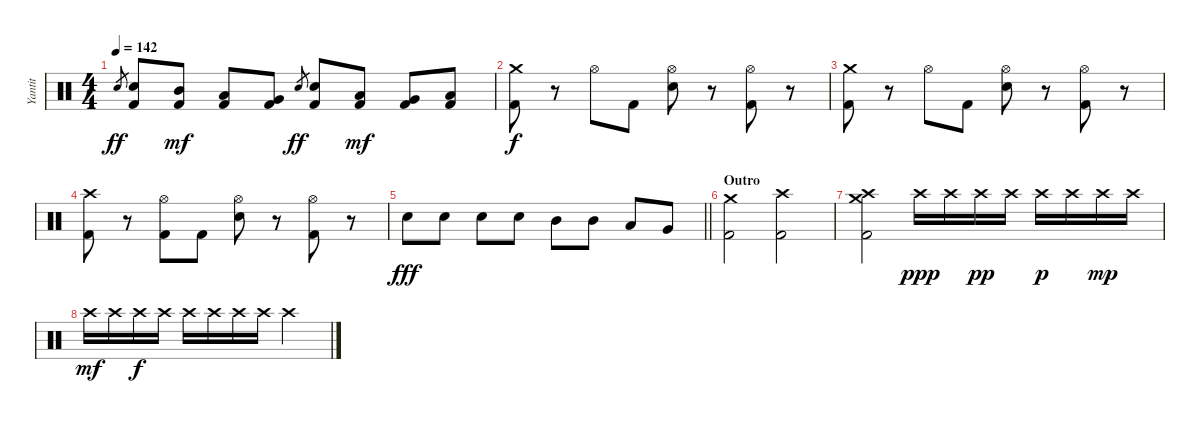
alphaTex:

\track ("Yantit" "Yantit") {instrument percussion}
\staff {score}
\articulation defaults
\ts (4 4)
\tempo 142
\clef neutral
\ks c "Electric Snare (hit)".8{gr dy ff}
("Electric Snare (hit)" "Kick (hit) 2").8 ("Mid Tom (hit)" "Kick (hit) 2").8{dy mf} ("Low Tom (hit)" "Kick (hit) 2").8 ("Very Low Tom (hit)" "Kick (hit) 2").8 "Electric Snare (hit)".8{gr dy ff} ("Electric Snare (hit)" "Kick (hit) 2").8 ("Low Tom (hit)" "Kick (hit) 2").8{dy mf} ("Very Low Tom (hit)" "Kick (hit) 2").8 ("Low Floor Tom (hit)" "Kick (hit) 2").8 |
("Crash medium (hit)" "Kick (hit) 2").8{dy f} r.8 "Hi-Hat (open)".8 "Kick (hit) 2".8 ("Hi-Hat (open)" "Electric Snare (hit)").8 r.8 ("Hi-Hat (open)" "Kick (hit) 2").8 r.8 |
("Crash medium (hit)" "Kick (hit) 2").8 r.8 "Hi-Hat (open)".8 "Kick (hit) 2".8 ("Hi-Hat (open)" "Electric Snare (hit)").8 r.8 ("Hi-Hat (open)" "Kick (hit) 2").8 r.8 |
("Crash high (hit)" "Kick (hit) 2").8 r.8 ("Hi-Hat (open)" "Kick (hit) 2").8 "Kick (hit) 2".8 ("Hi-Hat (open)" "Electric Snare (hit)").8 r.8 ("Hi-Hat (open)" "Kick (hit) 2").8 r.8 |
\barLineRight lightlight "Electric Snare (hit)".8{dy fff} "Electric Snare (hit)".8 "Electric Snare (hit)".8 "Electric Snare (hit)".8 "Mid Tom (hit)".8 "Mid Tom (hit)".8 "Low Tom (hit)".8 "Very Low Tom (hit)".8
|
\section ("" "Outro")
("Crash medium (hit)" "Kick (hit) 2").2 ("Crash high (hit)" "Kick (hit) 2").2 |
("Crash medium (hit)" "Crash high (hit)" "Kick (hit) 2").2 "Crash high (hit)".16{dy ppp} "Crash high (hit)".16 "Crash high (hit)".16{dy pp} "Crash high (hit)".16 "Crash high (hit)".16{dy p} "Crash high (hit)".16 "Crash high (hit)".16{dy mp} "Crash high (hit)".16 |
"Crash high (hit)".16{dy mf} "Crash high (hit)".16 "Crash high (hit)".16{dy f} "Crash high (hit)".16 "Crash high (hit)".16 "Crash high (hit)".16 "Crash high (hit)".16 "Crash high (hit)".16 "Crash high (hit)".2
